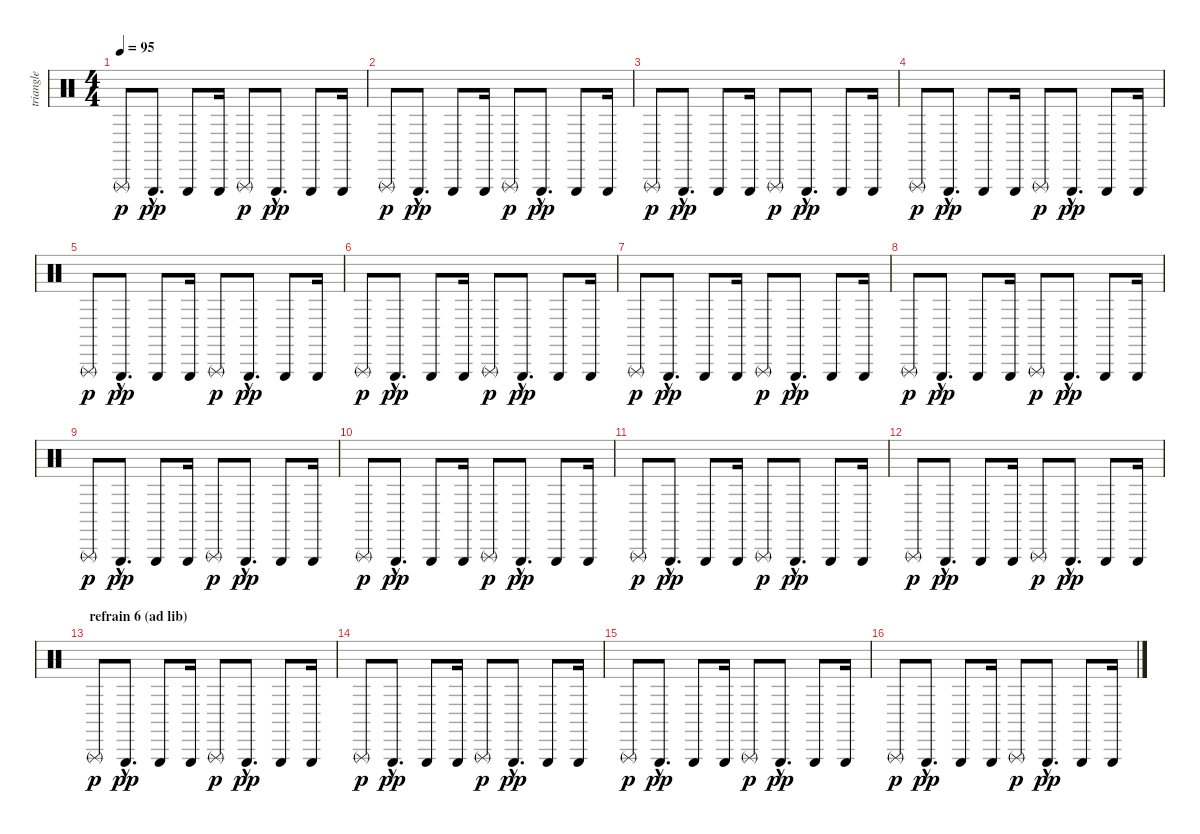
\track ("triangle" "triangle") {instrument percussion}
\staff {score}
\articulation defaults
\ts (4 4)
\tempo 95
\clef neutral
\ks c "Triangle (rnute)".8{dy p} "Triangle (hit)"{hac}.8{d dy pp} "Triangle (hit)".8 "Triangle (hit)".16 "Triangle (rnute)".8{dy p} "Triangle (hit)"{hac}.8{d dy pp} "Triangle (hit)".8 "Triangle (hit)".16
|
"Triangle (rnute)".8{dy p} "Triangle (hit)"{hac}.8{d dy pp} "Triangle (hit)".8 "Triangle (hit)".16 "Triangle (rnute)".8{dy p} "Triangle (hit)"{hac}.8{d dy pp} "Triangle (hit)".8 "Triangle (hit)".16 |
"Triangle (rnute)".8{dy p} "Triangle (hit)"{hac}.8{d dy pp} "Triangle (hit)".8 "Triangle (hit)".16 "Triangle (rnute)".8{dy p} "Triangle (hit)"{hac}.8{d dy pp} "Triangle (hit)".8 "Triangle (hit)".16 |
"Triangle (rnute)".8{dy p} "Triangle (hit)"{hac}.8{d dy pp} "Triangle (hit)".8 "Triangle (hit)".16 "Triangle (rnute)".8{dy p} "Triangle (hit)"{hac}.8{d dy pp} "Triangle (hit)".8 "Triangle (hit)".16 |
"Triangle (rnute)".8{dy p} "Triangle (hit)"{hac}.8{d dy pp} "Triangle (hit)".8 "Triangle (hit)".16 "Triangle (rnute)".8{dy p} "Triangle (hit)"{hac}.8{d dy pp} "Triangle (hit)".8 "Triangle (hit)".16 |
"Triangle (rnute)".8{dy p} "Triangle (hit)"{hac}.8{d dy pp} "Triangle (hit)".8 "Triangle (hit)".16 "Triangle (rnute)".8{dy p} "Triangle (hit)"{hac}.8{d dy pp} "Triangle (hit)".8 "Triangle (hit)".16 |
"Triangle (rnute)".8{dy p} "Triangle (hit)"{hac}.8{d dy pp} "Triangle (hit)".8 "Triangle (hit)".16 "Triangle (rnute)".8{dy p} "Triangle (hit)"{hac}.8{d dy pp} "Triangle (hit)".8 "Triangle (hit)".16 |
"Triangle (rnute)".8{dy p} "Triangle (hit)"{hac}.8{d dy pp} "Triangle (hit)".8 "Triangle (hit)".16 "Triangle (rnute)".8{dy p} "Triangle (hit)"{hac}.8{d dy pp} "Triangle (hit)".8 "Triangle (hit)".16 |
"Triangle (rnute)".8{dy p} "Triangle (hit)"{hac}.8{d dy pp} "Triangle (hit)".8 "Triangle (hit)".16 "Triangle (rnute)".8{dy p} "Triangle (hit)"{hac}.8{d dy pp} "Triangle (hit)".8 "Triangle (hit)".16 |
"Triangle (rnute)".8{dy p} "Triangle (hit)"{hac}.8{d dy pp} "Triangle (hit)".8 "Triangle (hit)".16 "Triangle (rnute)".8{dy p} "Triangle (hit)"{hac}.8{d dy pp} "Triangle (hit)".8 "Triangle (hit)".16 |
"Triangle (rnute)".8{dy p} "Triangle (hit)"{hac}.8{d dy pp} "Triangle (hit)".8 "Triangle (hit)".16 "Triangle (rnute)".8{dy p} "Triangle (hit)"{hac}.8{d dy pp} "Triangle (hit)".8 "Triangle (hit)".16 |
"Triangle (rnute)".8{dy p} "Triangle (hit)"{hac}.8{d dy pp} "Triangle (hit)".8 "Triangle (hit)".16 "Triangle (rnute)".8{dy p} "Triangle (hit)"{hac}.8{d dy pp} "Triangle (hit)".8 "Triangle (hit)".16 |
\section ("" "refrain 6 (ad lib)")
"Triangle (rnute)".8{dy p} "Triangle (hit)"{hac}.8{d dy pp} "Triangle (hit)".8 "Triangle (hit)".16 "Triangle (rnute)".8{dy p} "Triangle (hit)"{hac}.8{d dy pp} "Triangle (hit)".8 "Triangle (hit)".16 |
"Triangle (rnute)".8{dy p} "Triangle (hit)"{hac}.8{d dy pp} "Triangle (hit)".8 "Triangle (hit)".16 "Triangle (rnute)".8{dy p} "Triangle (hit)"{hac}.8{d dy pp} "Triangle (hit)".8 "Triangle (hit)".16 |
"Triangle (rnute)".8{dy p} "Triangle (hit)"{hac}.8{d dy pp} "Triangle (hit)".8 "Triangle (hit)".16 "Triangle (rnute)".8{dy p} "Triangle (hit)"{hac}.8{d dy pp} "Triangle (hit)".8 "Triangle (hit)".16 |
"Triangle (rnute)".8{dy p} "Triangle (hit)"{hac}.8{d dy pp} "Triangle (hit)".8 "Triangle (hit)".16 "Triangle (rnute)".8{dy p} "Triangle (hit)"{hac}.8{d dy pp} "Triangle (hit)".8 "Triangle (hit)".16
